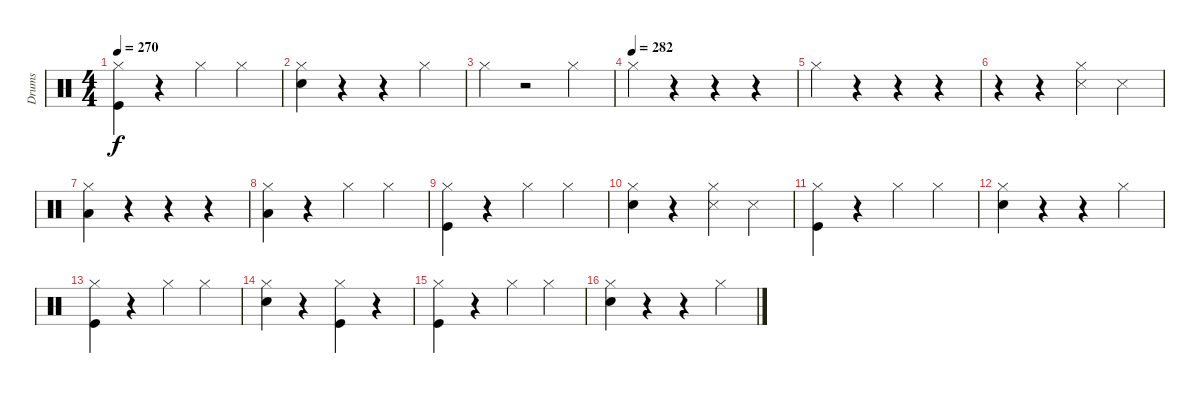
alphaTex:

\track ("Drums" "Drums") {instrument percussion}
\staff {score}
\articulation defaults
\ts (4 4)
\tempo 270
\clef neutral
\ks c
("Kick (hit)" "Hi-Hat (closed)").4{dy f} r.4 "Hi-Hat (closed)".4 "Hi-Hat (closed)".4 |
("Snare (hit) 2" "Hi-Hat (closed)").4 r.4 r.4 "Hi-Hat (closed)".4 |
"Hi-Hat (closed)".4 r.2 "Hi-Hat (closed)".4 |
\tempo (282)
"Hi-Hat (closed)".4 r.4 r.4 r.4 |
"Hi-Hat (closed)".4 r.4 r.4 r.4 |
r.4 r.4 ("Snare (side stick) 3" "Hi-Hat (closed)").4 "Snare (side stick) 3".4 |
("Low Tom (hit)" "Hi-Hat (closed)").4 r.4 r.4 r.4 |
("Low Tom (hit)" "Hi-Hat (closed)").4 r.4 "Hi-Hat (closed)".4 "Hi-Hat (closed)".4 |
("Kick (hit)" "Hi-Hat (closed)").4 r.4 "Hi-Hat (closed)".4 "Hi-Hat (closed)".4 |
("Snare (hit) 2" "Hi-Hat (closed)").4 r.4 ("Snare (side stick) 3" "Hi-Hat (closed)").4 "Snare (side stick) 3".4 |
("Kick (hit)" "Hi-Hat (closed)").4 r.4 "Hi-Hat (closed)".4 "Hi-Hat (closed)".4 |
("Snare (hit) 2" "Hi-Hat (closed)").4 r.4 r.4 "Hi-Hat (closed)".4 |
("Kick (hit)" "Hi-Hat (closed)").4 r.4 "Hi-Hat (closed)".4 "Hi-Hat (closed)".4 |
("Snare (hit) 2" "Hi-Hat (closed)").4 r.4 ("Kick (hit)" "Hi-Hat (closed)").4 r.4 |
("Kick (hit)" "Hi-Hat (closed)").4 r.4 "Hi-Hat (closed)".4 "Hi-Hat (closed)".4 |
("Snare (hit) 2" "Hi-Hat (closed)").4 r.4 r.4 "Hi-Hat (closed)".4
